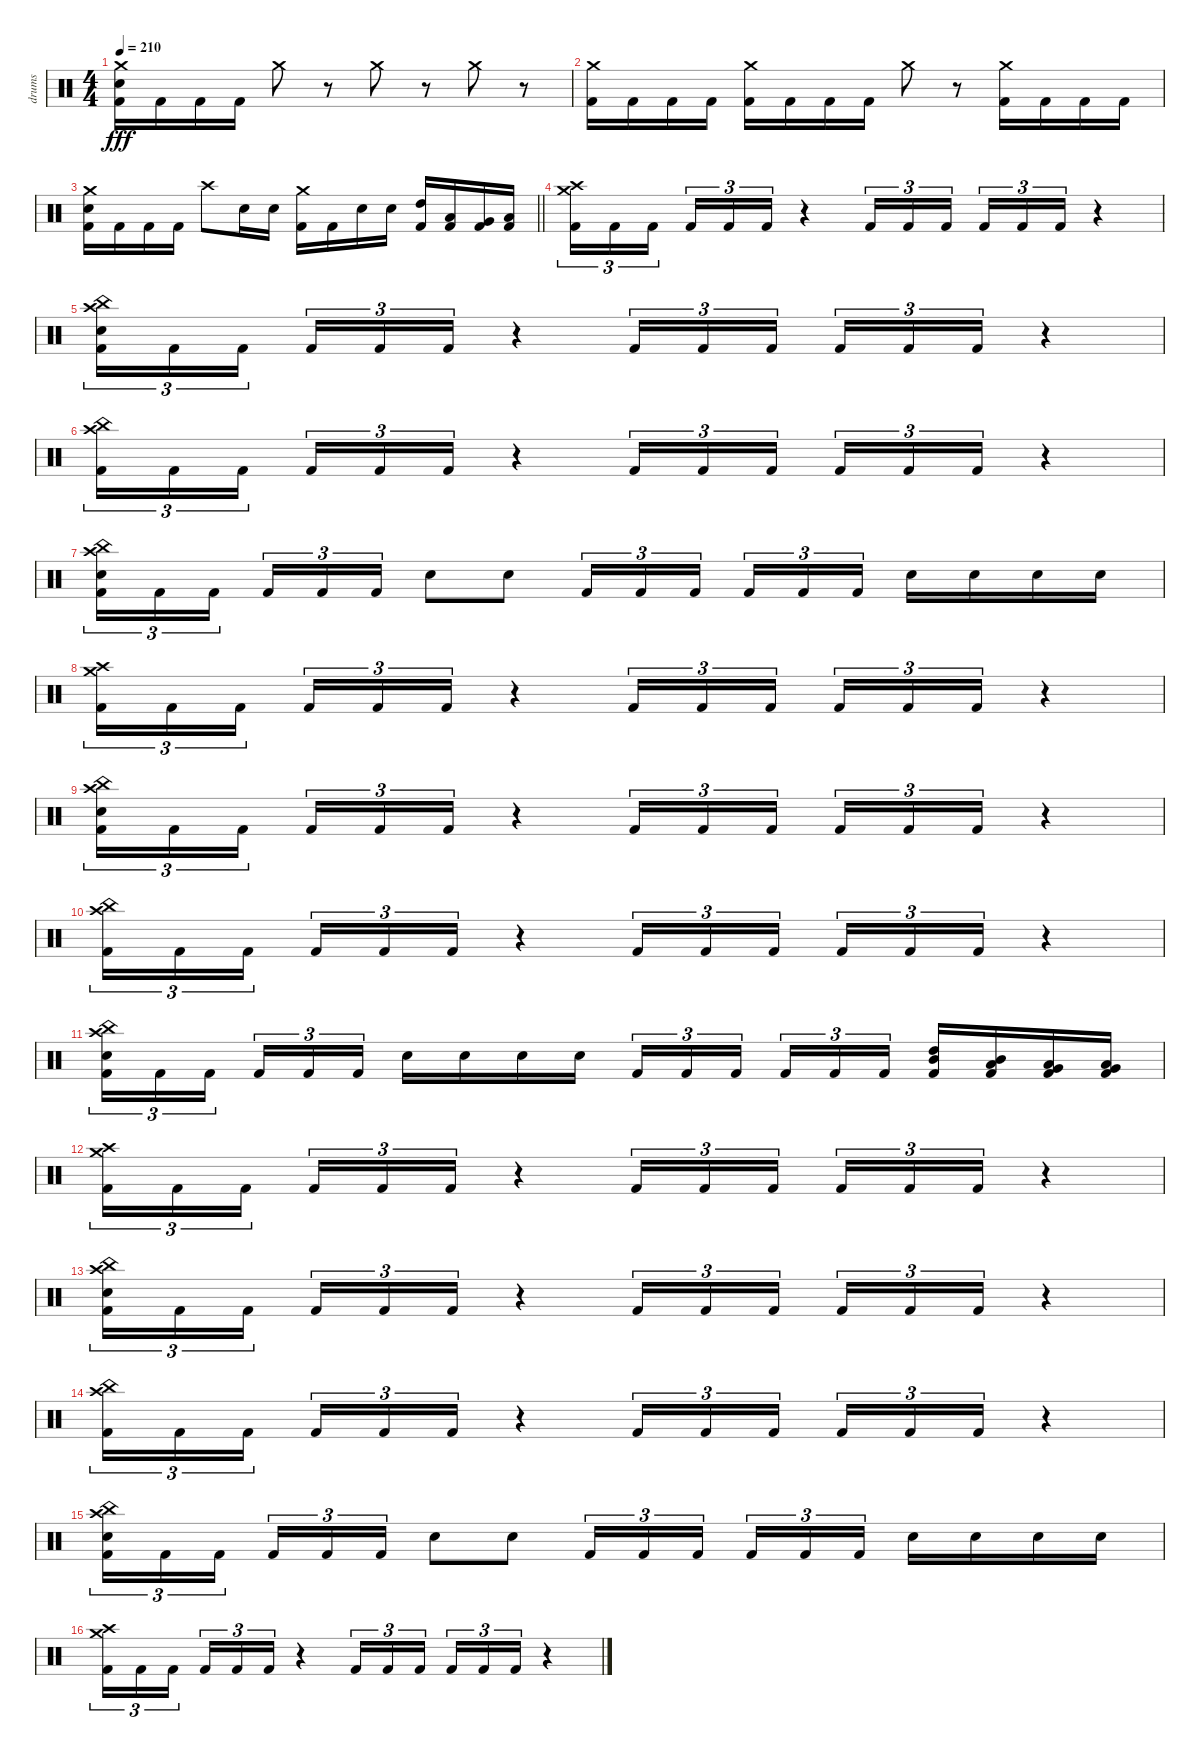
\track ("drums" "drums") {instrument percussion}
\staff {score}
\articulation defaults
\ts (4 4)
\tempo 210
\clef neutral
\ks c
("Crash medium (hit)" "Electric Snare (hit)" "Kick (hit) 2").16{dy fff} "Kick (hit) 2".16 "Kick (hit) 2".16 "Kick (hit) 2".16 "Crash medium (hit)".8 r.8 "Crash medium (hit)".8 r.8 "Crash medium (hit)".8 r.8 |
("Crash medium (hit)" "Kick (hit) 2").16 "Kick (hit) 2".16 "Kick (hit) 2".16 "Kick (hit) 2".16 ("Crash medium (hit)" "Kick (hit) 2").16 "Kick (hit) 2".16 "Kick (hit) 2".16 "Kick (hit) 2".16 "Crash medium (hit)".8 r.8 ("Crash medium (hit)" "Kick (hit) 2").16 "Kick (hit) 2".16 "Kick (hit) 2".16 "Kick (hit) 2".16 |
\barLineRight lightlight
("Crash medium (hit)" "Electric Snare (hit)" "Kick (hit) 2").16 "Kick (hit) 2".16 "Kick (hit) 2".16 "Kick (hit) 2".16 "Crash high (hit)".8 "Electric Snare (hit)".16 "Electric Snare (hit)".16 ("Crash medium (hit)" "Kick (hit) 2").16 "Kick (hit) 2".16 "Electric Snare (hit)".16 "Electric Snare (hit)".16 ("High Tom (hit)" "Kick (hit) 2").16 ("Low Tom (hit)" "Kick (hit) 2").16 ("Very Low Tom (hit)" "Kick (hit) 2").16 ("Low Floor Tom (hit)" "Kick (hit) 2").16 |
\section ("" "")
("Crash high (hit)" "Crash medium (hit)" "Kick (hit) 2").16{tu (3 2)} "Kick (hit) 2".16{tu (3 2)} "Kick (hit) 2".16{tu (3 2) beam splitsecondary} "Kick (hit) 2".16{tu (3 2)} "Kick (hit) 2".16{tu (3 2)} "Kick (hit) 2".16{tu (3 2)} r.4 "Kick (hit) 2".16{tu (3 2)} "Kick (hit) 2".16{tu (3 2)} "Kick (hit) 2".16{tu (3 2) beam splitsecondary} "Kick (hit) 2".16{tu (3 2)} "Kick (hit) 2".16{tu (3 2)} "Kick (hit) 2".16{tu (3 2)} r.4 |
("China (hit)" "Crash high (hit)" "Electric Snare (hit)" "Kick (hit) 2").16{tu (3 2)} "Kick (hit) 2".16{tu (3 2)} "Kick (hit) 2".16{tu (3 2) beam splitsecondary} "Kick (hit) 2".16{tu (3 2)} "Kick (hit) 2".16{tu (3 2)} "Kick (hit) 2".16{tu (3 2)} r.4 "Kick (hit) 2".16{tu (3 2)} "Kick (hit) 2".16{tu (3 2)} "Kick (hit) 2".16{tu (3 2) beam splitsecondary} "Kick (hit) 2".16{tu (3 2)} "Kick (hit) 2".16{tu (3 2)} "Kick (hit) 2".16{tu (3 2)} r.4 |
("China (hit)" "Crash high (hit)" "Kick (hit) 2").16{tu (3 2)} "Kick (hit) 2".16{tu (3 2)} "Kick (hit) 2".16{tu (3 2) beam splitsecondary} "Kick (hit) 2".16{tu (3 2)} "Kick (hit) 2".16{tu (3 2)} "Kick (hit) 2".16{tu (3 2)} r.4 "Kick (hit) 2".16{tu (3 2)} "Kick (hit) 2".16{tu (3 2)} "Kick (hit) 2".16{tu (3 2) beam splitsecondary} "Kick (hit) 2".16{tu (3 2)} "Kick (hit) 2".16{tu (3 2)} "Kick (hit) 2".16{tu (3 2)} r.4 |
("China (hit)" "Crash high (hit)" "Electric Snare (hit)" "Kick (hit) 2").16{tu (3 2)} "Kick (hit) 2".16{tu (3 2)} "Kick (hit) 2".16{tu (3 2) beam splitsecondary} "Kick (hit) 2".16{tu (3 2)} "Kick (hit) 2".16{tu (3 2)} "Kick (hit) 2".16{tu (3 2)} "Electric Snare (hit)".8 "Electric Snare (hit)".8 "Kick (hit) 2".16{tu (3 2)} "Kick (hit) 2".16{tu (3 2)} "Kick (hit) 2".16{tu (3 2) beam splitsecondary} "Kick (hit) 2".16{tu (3 2)} "Kick (hit) 2".16{tu (3 2)} "Kick (hit) 2".16{tu (3 2)} "Electric Snare (hit)".16 "Electric Snare (hit)".16 "Electric Snare (hit)".16 "Electric Snare (hit)".16 |
("Crash high (hit)" "Crash medium (hit)" "Kick (hit) 2").16{tu (3 2)} "Kick (hit) 2".16{tu (3 2)} "Kick (hit) 2".16{tu (3 2) beam splitsecondary} "Kick (hit) 2".16{tu (3 2)} "Kick (hit) 2".16{tu (3 2)} "Kick (hit) 2".16{tu (3 2)} r.4 "Kick (hit) 2".16{tu (3 2)} "Kick (hit) 2".16{tu (3 2)} "Kick (hit) 2".16{tu (3 2) beam splitsecondary} "Kick (hit) 2".16{tu (3 2)} "Kick (hit) 2".16{tu (3 2)} "Kick (hit) 2".16{tu (3 2)} r.4 |
("China (hit)" "Crash high (hit)" "Electric Snare (hit)" "Kick (hit) 2").16{tu (3 2)} "Kick (hit) 2".16{tu (3 2)} "Kick (hit) 2".16{tu (3 2) beam splitsecondary} "Kick (hit) 2".16{tu (3 2)} "Kick (hit) 2".16{tu (3 2)} "Kick (hit) 2".16{tu (3 2)} r.4 "Kick (hit) 2".16{tu (3 2)} "Kick (hit) 2".16{tu (3 2)} "Kick (hit) 2".16{tu (3 2) beam splitsecondary} "Kick (hit) 2".16{tu (3 2)} "Kick (hit) 2".16{tu (3 2)} "Kick (hit) 2".16{tu (3 2)} r.4 |
("China (hit)" "Crash high (hit)" "Kick (hit) 2").16{tu (3 2)} "Kick (hit) 2".16{tu (3 2)} "Kick (hit) 2".16{tu (3 2) beam splitsecondary} "Kick (hit) 2".16{tu (3 2)} "Kick (hit) 2".16{tu (3 2)} "Kick (hit) 2".16{tu (3 2)} r.4 "Kick (hit) 2".16{tu (3 2)} "Kick (hit) 2".16{tu (3 2)} "Kick (hit) 2".16{tu (3 2) beam splitsecondary} "Kick (hit) 2".16{tu (3 2)} "Kick (hit) 2".16{tu (3 2)} "Kick (hit) 2".16{tu (3 2)} r.4 |
("China (hit)" "Crash high (hit)" "Electric Snare (hit)" "Kick (hit) 2").16{tu (3 2)} "Kick (hit) 2".16{tu (3 2)} "Kick (hit) 2".16{tu (3 2) beam splitsecondary} "Kick (hit) 2".16{tu (3 2)} "Kick (hit) 2".16{tu (3 2)} "Kick (hit) 2".16{tu (3 2)} "Electric Snare (hit)".16 "Electric Snare (hit)".16 "Electric Snare (hit)".16 "Electric Snare (hit)".16 "Kick (hit) 2".16{tu (3 2)} "Kick (hit) 2".16{tu (3 2)} "Kick (hit) 2".16{tu (3 2) beam splitsecondary} "Kick (hit) 2".16{tu (3 2)} "Kick (hit) 2".16{tu (3 2)} "Kick (hit) 2".16{tu (3 2)} ("High Tom (hit)" "Mid Tom (hit)" "Kick (hit) 2").16 ("Mid Tom (hit)" "Low Tom (hit)" "Kick (hit) 2").16 ("Low Tom (hit)" "Very Low Tom (hit)" "Kick (hit) 2").16 ("Very Low Tom (hit)" "Low Floor Tom (hit)" "Kick (hit) 2").16 |
("Crash high (hit)" "Crash medium (hit)" "Kick (hit) 2").16{tu (3 2)} "Kick (hit) 2".16{tu (3 2)} "Kick (hit) 2".16{tu (3 2) beam splitsecondary} "Kick (hit) 2".16{tu (3 2)} "Kick (hit) 2".16{tu (3 2)} "Kick (hit) 2".16{tu (3 2)} r.4 "Kick (hit) 2".16{tu (3 2)} "Kick (hit) 2".16{tu (3 2)} "Kick (hit) 2".16{tu (3 2) beam splitsecondary} "Kick (hit) 2".16{tu (3 2)} "Kick (hit) 2".16{tu (3 2)} "Kick (hit) 2".16{tu (3 2)} r.4 |
("China (hit)" "Crash high (hit)" "Electric Snare (hit)" "Kick (hit) 2").16{tu (3 2)} "Kick (hit) 2".16{tu (3 2)} "Kick (hit) 2".16{tu (3 2) beam splitsecondary} "Kick (hit) 2".16{tu (3 2)} "Kick (hit) 2".16{tu (3 2)} "Kick (hit) 2".16{tu (3 2)} r.4 "Kick (hit) 2".16{tu (3 2)} "Kick (hit) 2".16{tu (3 2)} "Kick (hit) 2".16{tu (3 2) beam splitsecondary} "Kick (hit) 2".16{tu (3 2)} "Kick (hit) 2".16{tu (3 2)} "Kick (hit) 2".16{tu (3 2)} r.4 |
("China (hit)" "Crash high (hit)" "Kick (hit) 2").16{tu (3 2)} "Kick (hit) 2".16{tu (3 2)} "Kick (hit) 2".16{tu (3 2) beam splitsecondary} "Kick (hit) 2".16{tu (3 2)} "Kick (hit) 2".16{tu (3 2)} "Kick (hit) 2".16{tu (3 2)} r.4 "Kick (hit) 2".16{tu (3 2)} "Kick (hit) 2".16{tu (3 2)} "Kick (hit) 2".16{tu (3 2) beam splitsecondary} "Kick (hit) 2".16{tu (3 2)} "Kick (hit) 2".16{tu (3 2)} "Kick (hit) 2".16{tu (3 2)} r.4 |
("China (hit)" "Crash high (hit)" "Electric Snare (hit)" "Kick (hit) 2").16{tu (3 2)} "Kick (hit) 2".16{tu (3 2)} "Kick (hit) 2".16{tu (3 2) beam splitsecondary} "Kick (hit) 2".16{tu (3 2)} "Kick (hit) 2".16{tu (3 2)} "Kick (hit) 2".16{tu (3 2)} "Electric Snare (hit)".8 "Electric Snare (hit)".8 "Kick (hit) 2".16{tu (3 2)} "Kick (hit) 2".16{tu (3 2)} "Kick (hit) 2".16{tu (3 2) beam splitsecondary} "Kick (hit) 2".16{tu (3 2)} "Kick (hit) 2".16{tu (3 2)} "Kick (hit) 2".16{tu (3 2)} "Electric Snare (hit)".16 "Electric Snare (hit)".16 "Electric Snare (hit)".16 "Electric Snare (hit)".16 |
("Crash high (hit)" "Crash medium (hit)" "Kick (hit) 2").16{tu (3 2)} "Kick (hit) 2".16{tu (3 2)} "Kick (hit) 2".16{tu (3 2) beam splitsecondary} "Kick (hit) 2".16{tu (3 2)} "Kick (hit) 2".16{tu (3 2)} "Kick (hit) 2".16{tu (3 2)} r.4 "Kick (hit) 2".16{tu (3 2)} "Kick (hit) 2".16{tu (3 2)} "Kick (hit) 2".16{tu (3 2) beam splitsecondary} "Kick (hit) 2".16{tu (3 2)} "Kick (hit) 2".16{tu (3 2)} "Kick (hit) 2".16{tu (3 2)} r.4
